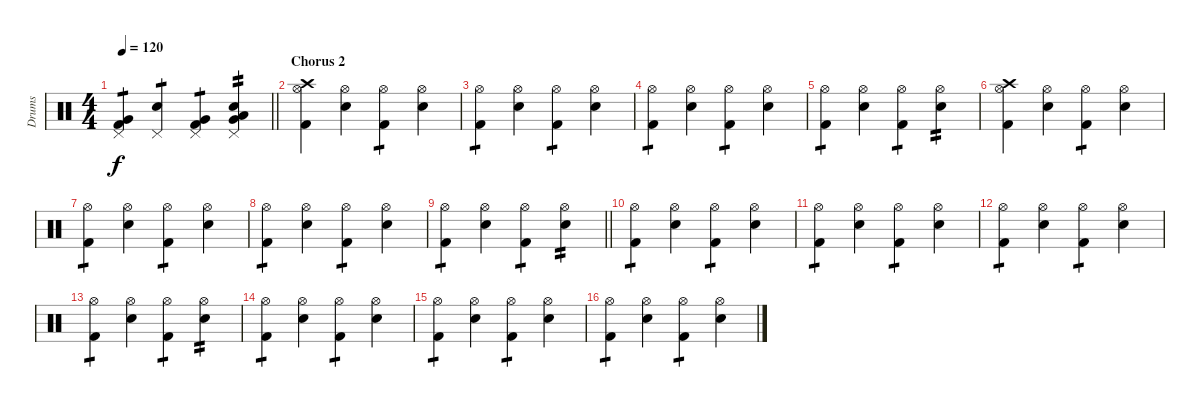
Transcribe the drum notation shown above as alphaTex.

\track ("Drums" "Drums") {instrument percussion}
\staff {score}
\articulation defaults
\ts (4 4)
\tempo 120
\clef neutral
\barLineRight lightlight
\ks c
("Pedal Hi-Hat (hit)" "Kick (hit) 2" "Very Low Tom (hit)").4{tp 1 dy f} ("Pedal Hi-Hat (hit)" "Electric Snare (hit)").4{tp 1} ("Pedal Hi-Hat (hit)" "Kick (hit) 2" "Very Low Tom (hit)").4{tp 1} ("Pedal Hi-Hat (hit)" "Electric Snare (hit)" "Low Tom (hit)" "Very Low Tom (hit)").4{tp 2} |
\section ("" "Chorus 2")
("Hi-Hat (open)" "Crash high (hit)" "Kick (hit) 2").4 ("Hi-Hat (open)" "Electric Snare (hit)").4 ("Hi-Hat (open)" "Kick (hit) 2").4{tp 1} ("Hi-Hat (open)" "Electric Snare (hit)").4 |
("Hi-Hat (open)" "Kick (hit) 2").4{tp 1} ("Hi-Hat (open)" "Electric Snare (hit)").4 ("Hi-Hat (open)" "Kick (hit) 2").4{tp 1} ("Hi-Hat (open)" "Electric Snare (hit)").4 |
("Hi-Hat (open)" "Kick (hit) 2").4{tp 1} ("Hi-Hat (open)" "Electric Snare (hit)").4 ("Hi-Hat (open)" "Kick (hit) 2").4{tp 1} ("Hi-Hat (open)" "Electric Snare (hit)").4 |
("Hi-Hat (open)" "Kick (hit) 2").4{tp 1} ("Hi-Hat (open)" "Electric Snare (hit)").4 ("Hi-Hat (open)" "Kick (hit) 2").4{tp 1} ("Hi-Hat (open)" "Electric Snare (hit)").4{tp 2} |
("Hi-Hat (open)" "Crash high (hit)" "Kick (hit) 2").4 ("Hi-Hat (open)" "Electric Snare (hit)").4 ("Hi-Hat (open)" "Kick (hit) 2").4{tp 1} ("Hi-Hat (open)" "Electric Snare (hit)").4 |
("Hi-Hat (open)" "Kick (hit) 2").4{tp 1} ("Hi-Hat (open)" "Electric Snare (hit)").4 ("Hi-Hat (open)" "Kick (hit) 2").4{tp 1} ("Hi-Hat (open)" "Electric Snare (hit)").4 |
("Hi-Hat (open)" "Kick (hit) 2").4{tp 1} ("Hi-Hat (open)" "Electric Snare (hit)").4 ("Hi-Hat (open)" "Kick (hit) 2").4{tp 1} ("Hi-Hat (open)" "Electric Snare (hit)").4 |
\barLineRight lightlight
("Hi-Hat (open)" "Kick (hit) 2").4{tp 1} ("Hi-Hat (open)" "Electric Snare (hit)").4 ("Hi-Hat (open)" "Kick (hit) 2").4{tp 1} ("Hi-Hat (open)" "Electric Snare (hit)").4{tp 2} |
("Hi-Hat (open)" "Kick (hit) 2").4{tp 1} ("Hi-Hat (open)" "Electric Snare (hit)").4 ("Hi-Hat (open)" "Kick (hit) 2").4{tp 1} ("Hi-Hat (open)" "Electric Snare (hit)").4 |
("Hi-Hat (open)" "Kick (hit) 2").4{tp 1} ("Hi-Hat (open)" "Electric Snare (hit)").4 ("Hi-Hat (open)" "Kick (hit) 2").4{tp 1} ("Hi-Hat (open)" "Electric Snare (hit)").4 |
("Hi-Hat (open)" "Kick (hit) 2").4{tp 1} ("Hi-Hat (open)" "Electric Snare (hit)").4 ("Hi-Hat (open)" "Kick (hit) 2").4{tp 1} ("Hi-Hat (open)" "Electric Snare (hit)").4 |
("Hi-Hat (open)" "Kick (hit) 2").4{tp 1} ("Hi-Hat (open)" "Electric Snare (hit)").4 ("Hi-Hat (open)" "Kick (hit) 2").4{tp 1} ("Hi-Hat (open)" "Electric Snare (hit)").4{tp 2} |
("Hi-Hat (open)" "Kick (hit) 2").4{tp 1} ("Hi-Hat (open)" "Electric Snare (hit)").4 ("Hi-Hat (open)" "Kick (hit) 2").4{tp 1} ("Hi-Hat (open)" "Electric Snare (hit)").4 |
("Hi-Hat (open)" "Kick (hit) 2").4{tp 1} ("Hi-Hat (open)" "Electric Snare (hit)").4 ("Hi-Hat (open)" "Kick (hit) 2").4{tp 1} ("Hi-Hat (open)" "Electric Snare (hit)").4 |
("Hi-Hat (open)" "Kick (hit) 2").4{tp 1} ("Hi-Hat (open)" "Electric Snare (hit)").4 ("Hi-Hat (open)" "Kick (hit) 2").4{tp 1} ("Hi-Hat (open)" "Electric Snare (hit)").4
